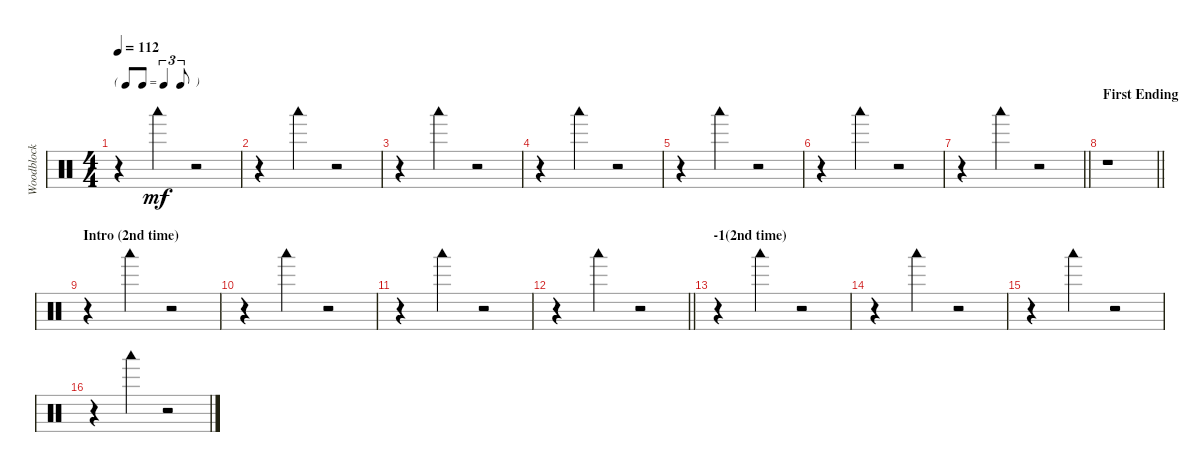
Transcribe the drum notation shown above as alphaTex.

\track ("Woodblock" "Woodblock") {instrument percussion}
\staff {score}
\articulation defaults
\ts (4 4)
\tf triplet8th
\tempo 112
\clef neutral
\ks c
r.4{dy mf} "Woodblock low (hit)".4 r.2 |
r.4 "Woodblock low (hit)".4 r.2 |
r.4 "Woodblock low (hit)".4 r.2 |
r.4 "Woodblock low (hit)".4 r.2 |
r.4 "Woodblock low (hit)".4 r.2 |
r.4 "Woodblock low (hit)".4 r.2 |
\barLineRight lightlight
r.4 "Woodblock low (hit)".4 r.2 |
\section ("" "First Ending")
\barLineRight lightlight
r.1 |
\section ("" "Intro (2nd time)")
r.4 "Woodblock low (hit)".4 r.2 |
r.4 "Woodblock low (hit)".4 r.2 |
r.4 "Woodblock low (hit)".4 r.2 |
\barLineRight lightlight
r.4 "Woodblock low (hit)".4 r.2 |
\section ("" "-1(2nd time)")
r.4 "Woodblock low (hit)".4 r.2 |
r.4 "Woodblock low (hit)".4 r.2 |
r.4 "Woodblock low (hit)".4 r.2 |
r.4 "Woodblock low (hit)".4 r.2
